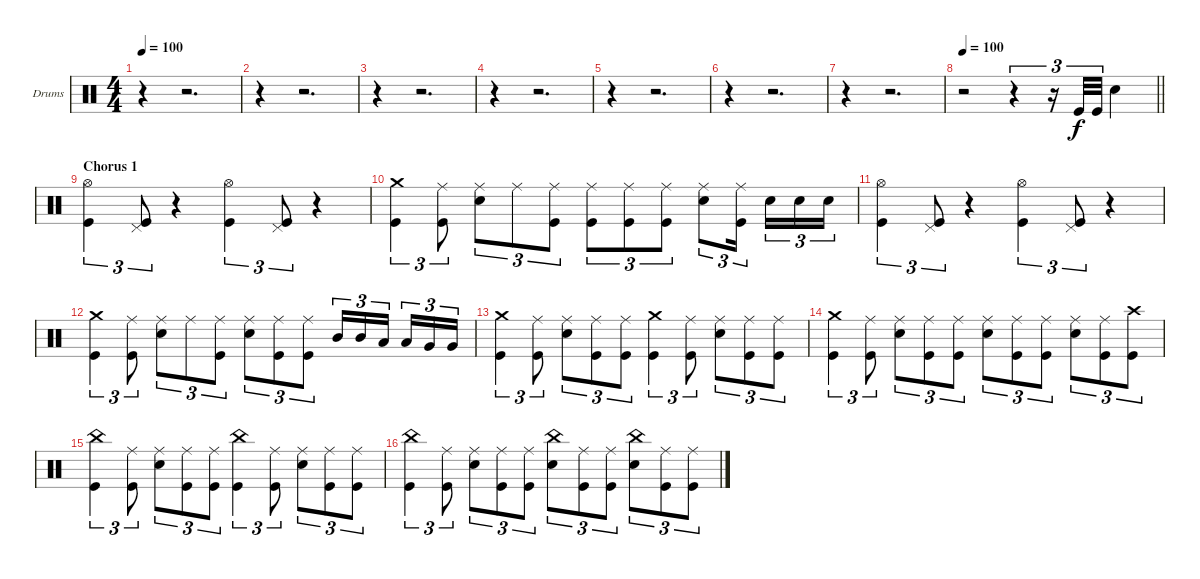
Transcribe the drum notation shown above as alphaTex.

\bracketExtendMode groupsimilarinstruments
\firstSystemTrackNameOrientation horizontal
\otherSystemsTrackNameOrientation horizontal
\track ("drums (Anton Zulganov)" "Drums") {instrument percussion}
\staff {score}
\articulation defaults
\ts (4 4)
\tempo 100
\clef neutral
\ks aminor
r.4{dy f} r.2{d} |
r.4 r.2{d} |
r.4 r.2{d} |
r.4 r.2{d} |
r.4 r.2{d} |
r.4 r.2{d} |
r.4 r.2{d} |
\tempo 100
\barLineRight lightlight
r.2 r.4{tu (3 2)} r.16{tu (3 2)} "Kick (hit)".32{tu (3 2)} "Kick (hit)".32{tu (3 2)} "Snare (hit) 2".4 |
\section ("" "Chorus 1")
("Kick (hit)" "Hi-Hat (open)").4{tu (3 2)} ("Kick (hit)" "Pedal Hi-Hat (hit)").8{tu (3 2)} r.4 ("Kick (hit)" "Hi-Hat (open)").4{tu (3 2)} ("Kick (hit)" "Pedal Hi-Hat (hit)").8{tu (3 2)} r.4 |
("Kick (hit)" "Crash medium (hit)").4{tu (3 2)} ("Kick (hit)" "Ride (middle)").8{tu (3 2)} ("Snare (hit) 2" "Ride (middle)").8{tu (3 2)} "Ride (middle)".8{tu (3 2)} ("Kick (hit)" "Ride (middle)").8{tu (3 2)} ("Kick (hit)" "Ride (middle)").8{tu (3 2)} ("Kick (hit)" "Ride (middle)").8{tu (3 2)} ("Kick (hit)" "Ride (middle)").8{tu (3 2)} ("Snare (hit) 2" "Ride (middle)").8{tu (3 2)} ("Kick (hit)" "Ride (middle)").16{tu (3 2)} "Snare (hit) 2".16{tu (3 2)} "Snare (hit) 2".16{tu (3 2)} "Snare (hit) 2".16{tu (3 2)} |
("Kick (hit)" "Hi-Hat (open)").4{tu (3 2)} ("Kick (hit)" "Pedal Hi-Hat (hit)").8{tu (3 2)} r.4 ("Kick (hit)" "Hi-Hat (open)").4{tu (3 2)} ("Kick (hit)" "Pedal Hi-Hat (hit)").8{tu (3 2)} r.4 |
("Kick (hit)" "Crash medium (hit)").4{tu (3 2)} ("Kick (hit)" "Ride (middle)").8{tu (3 2)} ("Snare (hit) 2" "Ride (middle)").8{tu (3 2)} "Ride (middle)".8{tu (3 2)} ("Kick (hit)" "Ride (middle)").8{tu (3 2)} ("Snare (hit) 2" "Ride (middle)").8{tu (3 2)} ("Kick (hit)" "Ride (middle)").8{tu (3 2)} ("Kick (hit)" "Ride (middle)").8{tu (3 2)} "Mid Tom (hit)".16{tu (3 2)} "Mid Tom (hit)".16{tu (3 2)} "Low Tom (hit)".16{tu (3 2)} "Low Tom (hit)".16{tu (3 2)} "Very Low Tom (hit)".16{tu (3 2)} "Very Low Tom (hit)".16{tu (3 2)} |
("Kick (hit)" "Crash medium (hit)").4{tu (3 2)} ("Kick (hit)" "Ride (middle)").8{tu (3 2)} ("Snare (hit) 2" "Ride (middle)").8{tu (3 2)} ("Kick (hit)" "Ride (middle)").8{tu (3 2)} ("Kick (hit)" "Ride (middle)").8{tu (3 2)} ("Kick (hit)" "Crash medium (hit)").4{tu (3 2)} ("Kick (hit)" "Ride (middle)").8{tu (3 2)} ("Snare (hit) 2" "Ride (middle)").8{tu (3 2)} ("Kick (hit)" "Ride (middle)").8{tu (3 2)} ("Kick (hit)" "Ride (middle)").8{tu (3 2)} |
("Kick (hit)" "Crash medium (hit)").4{tu (3 2)} ("Kick (hit)" "Ride (middle)").8{tu (3 2)} ("Snare (hit) 2" "Ride (middle)").8{tu (3 2)} ("Kick (hit)" "Ride (middle)").8{tu (3 2)} ("Kick (hit)" "Ride (middle)").8{tu (3 2)} ("Snare (hit) 2" "Ride (middle)").8{tu (3 2)} ("Kick (hit)" "Ride (middle)").8{tu (3 2)} ("Kick (hit)" "Ride (middle)").8{tu (3 2)} ("Snare (hit) 2" "Ride (middle)").8{tu (3 2)} ("Kick (hit)" "Ride (middle)").8{tu (3 2)} ("Kick (hit)" "Crash high (hit)").8{tu (3 2)} |
("Kick (hit)" "China (hit)").4{tu (3 2)} ("Kick (hit)" "Ride (middle)").8{tu (3 2)} ("Snare (hit) 2" "Ride (middle)").8{tu (3 2)} ("Kick (hit)" "Ride (middle)").8{tu (3 2)} ("Kick (hit)" "Ride (middle)").8{tu (3 2)} ("Kick (hit)" "China (hit)").4{tu (3 2)} ("Kick (hit)" "Ride (middle)").8{tu (3 2)} ("Snare (hit) 2" "Ride (middle)").8{tu (3 2)} ("Kick (hit)" "Ride (middle)").8{tu (3 2)} ("Kick (hit)" "Ride (middle)").8{tu (3 2)} |
("Kick (hit)" "China (hit)").4{tu (3 2)} ("Kick (hit)" "Ride (middle)").8{tu (3 2)} ("Snare (hit) 2" "Ride (middle)").8{tu (3 2)} ("Kick (hit)" "Ride (middle)").8{tu (3 2)} ("Kick (hit)" "Ride (middle)").8{tu (3 2)} ("Snare (hit) 2" "China (hit)").8{tu (3 2)} ("Kick (hit)" "Ride (middle)").8{tu (3 2)} ("Kick (hit)" "Ride (middle)").8{tu (3 2)} ("Snare (hit) 2" "China (hit)").8{tu (3 2)} ("Kick (hit)" "Ride (middle)").8{tu (3 2)} ("Kick (hit)" "Ride (middle)").8{tu (3 2)}
